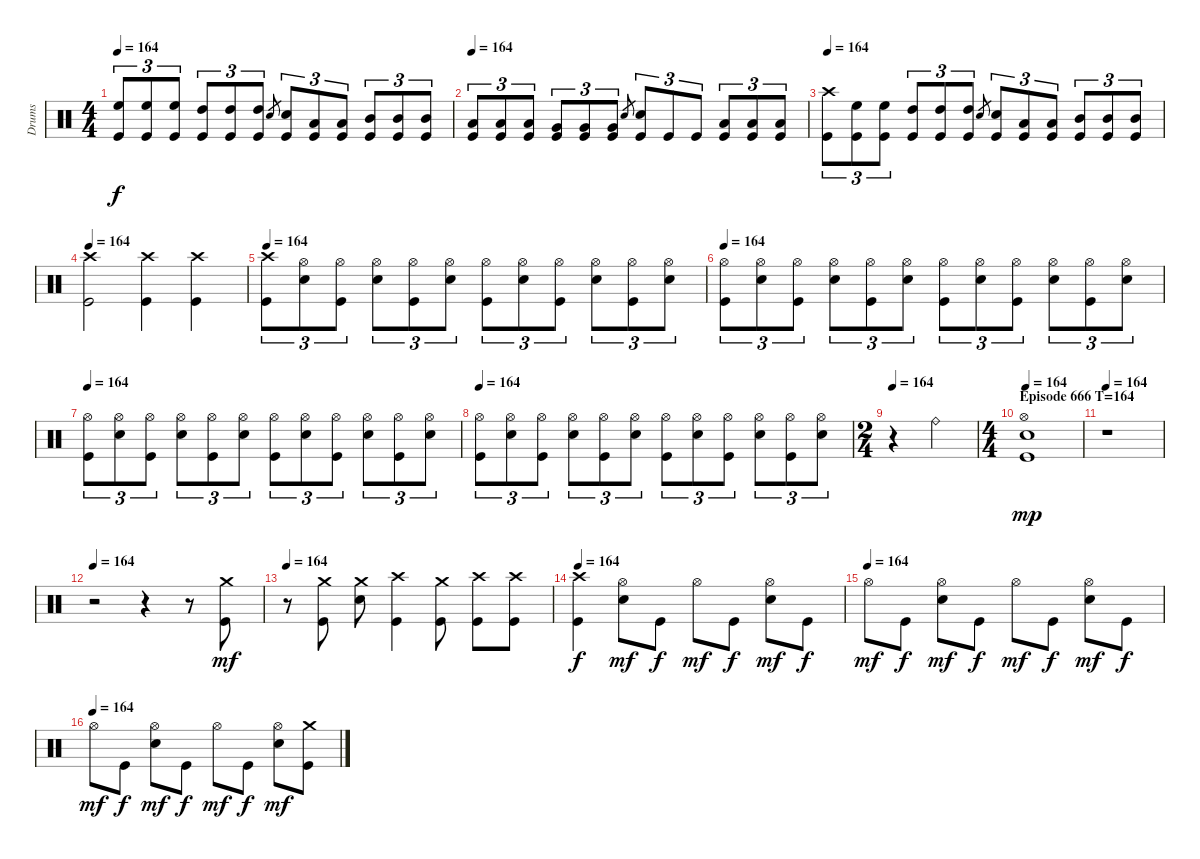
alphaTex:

\track ("Drums" "Drums") {instrument percussion}
\staff {score}
\articulation defaults
\ts (4 4)
\tempo 164
\clef neutral
\ks c
("High Floor Tom (hit)" "Kick (hit)").8{tu (3 2) dy f} ("High Floor Tom (hit)" "Kick (hit)").8{tu (3 2)} ("High Floor Tom (hit)" "Kick (hit)").8{tu (3 2)} ("High Tom (hit)" "Kick (hit)").8{tu (3 2)} ("High Tom (hit)" "Kick (hit)").8{tu (3 2)} ("High Tom (hit)" "Kick (hit)").8{tu (3 2)} "Electric Snare (hit)".8{gr} ("Electric Snare (hit)" "Kick (hit)").8{tu (3 2)} ("Low Tom (hit)" "Kick (hit)").8{tu (3 2)} ("Low Tom (hit)" "Kick (hit)").8{tu (3 2)} ("Mid Tom (hit)" "Kick (hit)").8{tu (3 2)} ("Mid Tom (hit)" "Kick (hit)").8{tu (3 2)} ("Mid Tom (hit)" "Kick (hit)").8{tu (3 2)} |
\tempo 164
("Low Tom (hit)" "Kick (hit)").8{tu (3 2)} ("Low Tom (hit)" "Kick (hit)").8{tu (3 2)} ("Low Tom (hit)" "Kick (hit)").8{tu (3 2)} ("Very Low Tom (hit)" "Kick (hit)").8{tu (3 2)} ("Very Low Tom (hit)" "Kick (hit)").8{tu (3 2)} ("Very Low Tom (hit)" "Kick (hit)").8{tu (3 2)} "Electric Snare (hit)".8{gr} ("Electric Snare (hit)" "Kick (hit)").8{tu (3 2)} "Kick (hit)".8{tu (3 2)} "Kick (hit)".8{tu (3 2)} ("Low Floor Tom (hit)" "Kick (hit)").8{tu (3 2)} ("Low Floor Tom (hit)" "Kick (hit)").8{tu (3 2)} ("Low Floor Tom (hit)" "Kick (hit)").8{tu (3 2)} |
\tempo 164
("Crash high (hit)" "Kick (hit)").8{tu (3 2)} ("High Floor Tom (hit)" "Kick (hit)").8{tu (3 2)} ("High Floor Tom (hit)" "Kick (hit)").8{tu (3 2)} ("High Tom (hit)" "Kick (hit)").8{tu (3 2)} ("High Tom (hit)" "Kick (hit)").8{tu (3 2)} ("High Tom (hit)" "Kick (hit)").8{tu (3 2)} "Electric Snare (hit)".8{gr} ("Electric Snare (hit)" "Kick (hit)").8{tu (3 2)} ("Low Tom (hit)" "Kick (hit)").8{tu (3 2)} ("Low Tom (hit)" "Kick (hit)").8{tu (3 2)} ("Mid Tom (hit)" "Kick (hit)").8{tu (3 2)} ("Mid Tom (hit)" "Kick (hit)").8{tu (3 2)} ("Mid Tom (hit)" "Kick (hit)").8{tu (3 2)} |
\tempo 164
("Crash high (hit)" "Kick (hit)").2 ("Crash high (hit)" "Kick (hit)").4 ("Crash high (hit)" "Kick (hit)").4 |
\tempo 164
("Crash high (hit)" "Kick (hit)").8{tu (3 2)} ("Hi-Hat (open)" "Electric Snare (hit)").8{tu (3 2)} ("Hi-Hat (open)" "Kick (hit)").8{tu (3 2)} ("Hi-Hat (open)" "Electric Snare (hit)").8{tu (3 2)} ("Hi-Hat (open)" "Kick (hit)").8{tu (3 2)} ("Hi-Hat (open)" "Electric Snare (hit)").8{tu (3 2)} ("Hi-Hat (open)" "Kick (hit)").8{tu (3 2)} ("Hi-Hat (open)" "Electric Snare (hit)").8{tu (3 2)} ("Hi-Hat (open)" "Kick (hit)").8{tu (3 2)} ("Hi-Hat (open)" "Electric Snare (hit)").8{tu (3 2)} ("Hi-Hat (open)" "Kick (hit)").8{tu (3 2)} ("Hi-Hat (open)" "Electric Snare (hit)").8{tu (3 2)} |
\tempo 164
("Hi-Hat (open)" "Kick (hit)").8{tu (3 2)} ("Hi-Hat (open)" "Electric Snare (hit)").8{tu (3 2)} ("Hi-Hat (open)" "Kick (hit)").8{tu (3 2)} ("Hi-Hat (open)" "Electric Snare (hit)").8{tu (3 2)} ("Hi-Hat (open)" "Kick (hit)").8{tu (3 2)} ("Hi-Hat (open)" "Electric Snare (hit)").8{tu (3 2)} ("Hi-Hat (open)" "Kick (hit)").8{tu (3 2)} ("Hi-Hat (open)" "Electric Snare (hit)").8{tu (3 2)} ("Hi-Hat (open)" "Kick (hit)").8{tu (3 2)} ("Hi-Hat (open)" "Electric Snare (hit)").8{tu (3 2)} ("Hi-Hat (open)" "Kick (hit)").8{tu (3 2)} ("Hi-Hat (open)" "Electric Snare (hit)").8{tu (3 2)} |
\tempo 164
("Hi-Hat (open)" "Kick (hit)").8{tu (3 2)} ("Hi-Hat (open)" "Electric Snare (hit)").8{tu (3 2)} ("Hi-Hat (open)" "Kick (hit)").8{tu (3 2)} ("Hi-Hat (open)" "Electric Snare (hit)").8{tu (3 2)} ("Hi-Hat (open)" "Kick (hit)").8{tu (3 2)} ("Hi-Hat (open)" "Electric Snare (hit)").8{tu (3 2)} ("Hi-Hat (open)" "Kick (hit)").8{tu (3 2)} ("Hi-Hat (open)" "Electric Snare (hit)").8{tu (3 2)} ("Hi-Hat (open)" "Kick (hit)").8{tu (3 2)} ("Hi-Hat (open)" "Electric Snare (hit)").8{tu (3 2)} ("Hi-Hat (open)" "Kick (hit)").8{tu (3 2)} ("Hi-Hat (open)" "Electric Snare (hit)").8{tu (3 2)} |
\tempo 164
("Hi-Hat (open)" "Kick (hit)").8{tu (3 2)} ("Hi-Hat (open)" "Electric Snare (hit)").8{tu (3 2)} ("Hi-Hat (open)" "Kick (hit)").8{tu (3 2)} ("Hi-Hat (open)" "Electric Snare (hit)").8{tu (3 2)} ("Hi-Hat (open)" "Kick (hit)").8{tu (3 2)} ("Hi-Hat (open)" "Electric Snare (hit)").8{tu (3 2)} ("Hi-Hat (open)" "Kick (hit)").8{tu (3 2)} ("Hi-Hat (open)" "Electric Snare (hit)").8{tu (3 2)} ("Hi-Hat (open)" "Kick (hit)").8{tu (3 2)} ("Hi-Hat (open)" "Electric Snare (hit)").8{tu (3 2)} ("Hi-Hat (open)" "Kick (hit)").8{tu (3 2)} ("Hi-Hat (open)" "Electric Snare (hit)").8{tu (3 2)} |
\ts (2 4)
\tempo 164
r.4 "Ride (bell)".4 |
\ts (4 4)
\section ("" "Episode 666 T=164")
\tempo 164
("Kick (hit)" "Electric Snare (hit)" "Hi-Hat (open)").1{dy mp} |
\tempo 164
r.1 |
\tempo 164
r.2 r.4 r.8 ("Kick (hit)" "Crash medium (hit)").8{dy mf} |
\tempo 164
r.8 ("Kick (hit)" "Crash medium (hit)").8 ("Electric Snare (hit)" "Crash medium (hit)").8 ("Kick (hit)" "Crash high (hit)").4 ("Kick (hit)" "Crash medium (hit)").8 ("Kick (hit)" "Crash high (hit)").8 ("Kick (hit)" "Crash high (hit)").8 |
\tempo 164
("Kick (hit)" "Crash high (hit)").4{dy f} ("Electric Snare (hit)" "Hi-Hat (open)").8{dy mf} "Kick (hit)".8{dy f} "Hi-Hat (open)".8{dy mf} "Kick (hit)".8{dy f} ("Electric Snare (hit)" "Hi-Hat (open)").8{dy mf} "Kick (hit)".8{dy f} |
\tempo (164)
"Hi-Hat (open)".8{dy mf} "Kick (hit)".8{dy f} ("Electric Snare (hit)" "Hi-Hat (open)").8{dy mf} "Kick (hit)".8{dy f} "Hi-Hat (open)".8{dy mf} "Kick (hit)".8{dy f} ("Electric Snare (hit)" "Hi-Hat (open)").8{dy mf} "Kick (hit)".8{dy f} |
\tempo (164)
"Hi-Hat (open)".8{dy mf} "Kick (hit)".8{dy f} ("Electric Snare (hit)" "Hi-Hat (open)").8{dy mf} "Kick (hit)".8{dy f} "Hi-Hat (open)".8{dy mf} "Kick (hit)".8{dy f} ("Electric Snare (hit)" "Hi-Hat (open)").8{dy mf} ("Kick (hit)" "Crash medium (hit)").8
